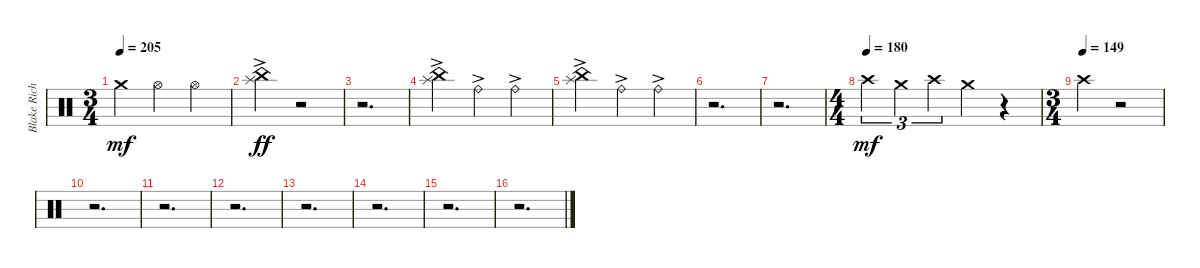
\track ("Blake Richardson Drums" "Blake Rich") {instrument percussion}
\staff {score}
\articulation defaults
\ts (3 4)
\tempo 205
\clef neutral
\ks c "Crash medium (hit)".4{dy mf} "Hi-Hat (open)".4 "Hi-Hat (open)".4
|
("Splash (hit)"{ac} "China (hit)").4{dy ff} r.2 |
r.2{d} |
("Splash (hit)"{ac} "China (hit)").4 "Ride (bell)"{ac}.4 "Ride (bell)"{ac}.4 |
("Splash (hit)"{ac} "China (hit)").4 "Ride (bell)"{ac}.4 "Ride (bell)"{ac}.4 |
r.2{d} |
r.2{d} |
\ts (4 4)
\tempo (180)
"Crash high (hit)".4{tu (3 2) dy mf} "Crash medium (hit)".4{tu (3 2)} "Crash high (hit)".4{tu (3 2)} "Crash medium (hit)".4 r.4 |
\ts (3 4)
\tempo (149)
"Crash high (hit)".4 r.2 |
r.2{d} |
r.2{d} |
r.2{d} |
r.2{d} |
r.2{d} |
r.2{d} |
r.2{d}
